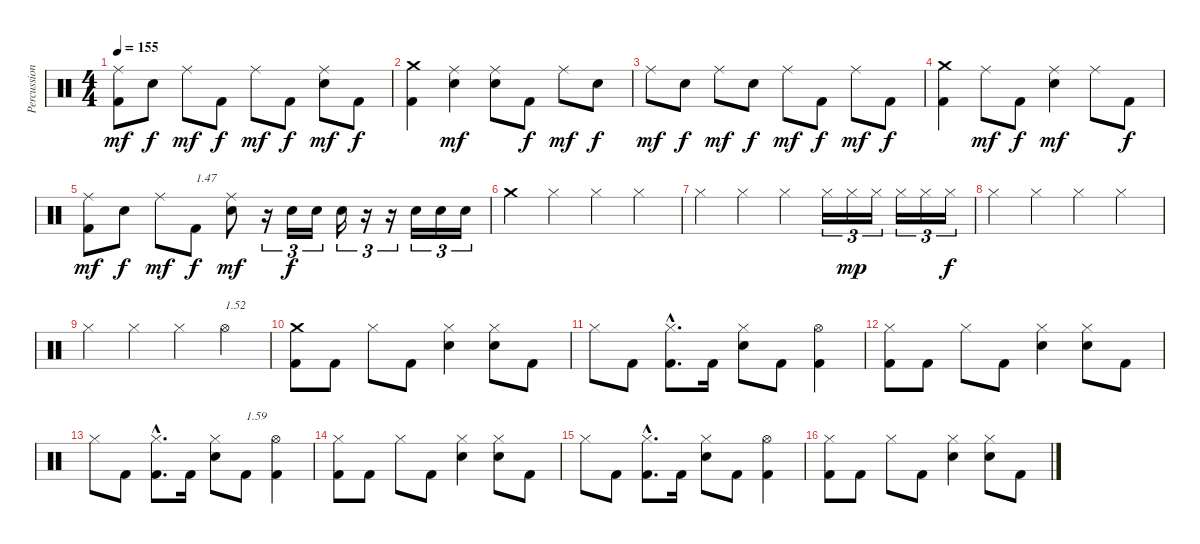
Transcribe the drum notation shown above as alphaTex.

\track ("Percussions" "Percussion") {instrument percussion}
\staff {score}
\articulation defaults
\ts (4 4)
\tempo 155
\clef neutral
\ks c
("Kick (hit) 2" "Ride (middle)").8{dy mf} "Electric Snare (hit)".8{dy f} "Ride (middle)".8{dy mf} "Kick (hit) 2".8{dy f} "Ride (middle)".8{dy mf} "Kick (hit) 2".8{dy f} ("Electric Snare (hit)" "Ride (middle)").8{dy mf} "Kick (hit) 2".8{dy f} |
("Kick (hit) 2" "Crash medium (hit)").4 ("Electric Snare (hit)" "Ride (middle)").4{dy mf} ("Electric Snare (hit)" "Ride (middle)").8 "Kick (hit) 2".8{dy f} "Ride (middle)".8{dy mf} "Electric Snare (hit)".8{dy f} |
"Ride (middle)".8{dy mf} "Electric Snare (hit)".8{dy f} "Ride (middle)".8{dy mf} "Electric Snare (hit)".8{dy f} "Ride (middle)".8{dy mf} "Kick (hit) 2".8{dy f} "Ride (middle)".8{dy mf} "Kick (hit) 2".8{dy f} |
("Kick (hit) 2" "Crash medium (hit)").4 "Ride (middle)".8{dy mf} "Kick (hit) 2".8{dy f} ("Electric Snare (hit)" "Ride (middle)").4{dy mf} "Ride (middle)".8 "Kick (hit) 2".8{dy f} |
("Kick (hit) 2" "Ride (middle)").8{dy mf} "Electric Snare (hit)".8{dy f} "Ride (middle)".8{dy mf} "Kick (hit) 2".8{txt "1.47" dy f} ("Electric Snare (hit)" "Ride (middle)").8{dy mf} r.16{tu (3 2)} "Electric Snare (hit)".16{tu (3 2) dy f} "Electric Snare (hit)".16{tu (3 2)} "Electric Snare (hit)".16{tu (3 2)} r.16{tu (3 2)} r.16{tu (3 2)} "Electric Snare (hit)".16{tu (3 2)} "Electric Snare (hit)".16{tu (3 2)} "Electric Snare (hit)".16{tu (3 2)} |
"Crash medium (hit)".4 "Hi-Hat (closed)".4 "Hi-Hat (closed)".4 "Hi-Hat (closed)".4 |
"Hi-Hat (closed)".4 "Hi-Hat (closed)".4 "Hi-Hat (closed)".4 "Hi-Hat (closed)".16{tu (3 2)} "Hi-Hat (closed)".16{tu (3 2) dy mp} "Hi-Hat (closed)".16{tu (3 2)} "Hi-Hat (closed)".16{tu (3 2)} "Hi-Hat (closed)".16{tu (3 2)} "Hi-Hat (closed)".16{tu (3 2) dy f} |
"Hi-Hat (closed)".4 "Hi-Hat (closed)".4 "Hi-Hat (closed)".4 "Hi-Hat (closed)".4 |
"Hi-Hat (closed)".4 "Hi-Hat (closed)".4 "Hi-Hat (closed)".4 "Hi-Hat (open)".4{txt "1.52"} |
("Kick (hit) 2" "Crash medium (hit)").8 "Kick (hit) 2".8 "Hi-Hat (closed)".8 "Kick (hit) 2".8 ("Electric Snare (hit)" "Hi-Hat (closed)").4 ("Electric Snare (hit)" "Hi-Hat (closed)").8 "Kick (hit) 2".8 |
"Hi-Hat (closed)".8 "Kick (hit) 2".8 ("Kick (hit) 2"{hac} "Hi-Hat (closed)"{hac}).8{d} "Kick (hit) 2".16 ("Electric Snare (hit)" "Hi-Hat (closed)").8 "Kick (hit) 2".8 ("Kick (hit) 2" "Hi-Hat (open)").4 |
("Kick (hit) 2" "Hi-Hat (closed)").8 "Kick (hit) 2".8 "Hi-Hat (closed)".8 "Kick (hit) 2".8 ("Electric Snare (hit)" "Hi-Hat (closed)").4 ("Electric Snare (hit)" "Hi-Hat (closed)").8 "Kick (hit) 2".8 |
"Hi-Hat (closed)".8 "Kick (hit) 2".8 ("Kick (hit) 2"{hac} "Hi-Hat (closed)"{hac}).8{d} "Kick (hit) 2".16 ("Electric Snare (hit)" "Hi-Hat (closed)").8 "Kick (hit) 2".8{txt "1.59"} ("Kick (hit) 2" "Hi-Hat (open)").4 |
("Kick (hit) 2" "Hi-Hat (closed)").8 "Kick (hit) 2".8 "Hi-Hat (closed)".8 "Kick (hit) 2".8 ("Electric Snare (hit)" "Hi-Hat (closed)").4 ("Electric Snare (hit)" "Hi-Hat (closed)").8 "Kick (hit) 2".8 |
"Hi-Hat (closed)".8 "Kick (hit) 2".8 ("Kick (hit) 2"{hac} "Hi-Hat (closed)"{hac}).8{d} "Kick (hit) 2".16 ("Electric Snare (hit)" "Hi-Hat (closed)").8 "Kick (hit) 2".8 ("Kick (hit) 2" "Hi-Hat (open)").4 |
("Kick (hit) 2" "Hi-Hat (closed)").8 "Kick (hit) 2".8 "Hi-Hat (closed)".8 "Kick (hit) 2".8 ("Electric Snare (hit)" "Hi-Hat (closed)").4 ("Electric Snare (hit)" "Hi-Hat (closed)").8 "Kick (hit) 2".8
